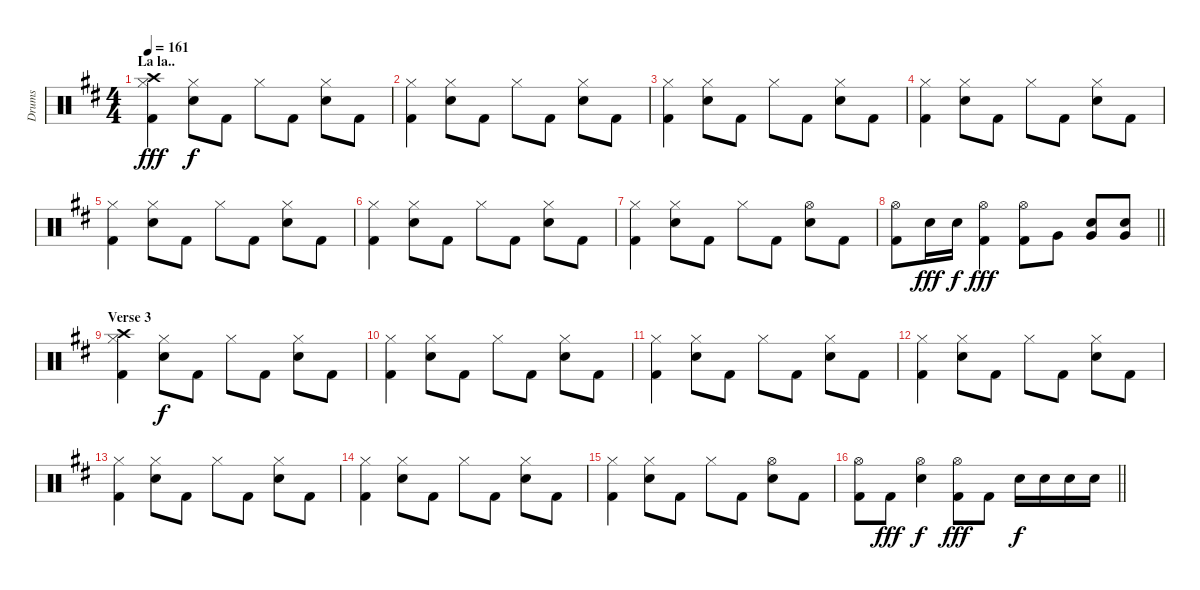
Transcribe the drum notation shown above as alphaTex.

\track ("Drums" "Drums") {instrument percussion}
\staff {score}
\articulation defaults
\ts (4 4)
\section ("" "La la..")
\tempo 161
\clef neutral
\ks d
("Hi-Hat (closed)" "Crash high (hit)" "Kick (hit) 2").4{dy fff} ("Hi-Hat (closed)" "Electric Snare (hit)").8{dy f} "Kick (hit) 2".8 "Hi-Hat (closed)".8 "Kick (hit) 2".8 ("Hi-Hat (closed)" "Electric Snare (hit)").8 "Kick (hit) 2".8 |
("Hi-Hat (closed)" "Kick (hit) 2").4 ("Hi-Hat (closed)" "Electric Snare (hit)").8 "Kick (hit) 2".8 "Hi-Hat (closed)".8 "Kick (hit) 2".8 ("Hi-Hat (closed)" "Electric Snare (hit)").8 "Kick (hit) 2".8 |
("Hi-Hat (closed)" "Kick (hit) 2").4 ("Hi-Hat (closed)" "Electric Snare (hit)").8 "Kick (hit) 2".8 "Hi-Hat (closed)".8 "Kick (hit) 2".8 ("Hi-Hat (closed)" "Electric Snare (hit)").8 "Kick (hit) 2".8 |
("Hi-Hat (closed)" "Kick (hit) 2").4 ("Hi-Hat (closed)" "Electric Snare (hit)").8 "Kick (hit) 2".8 "Hi-Hat (closed)".8 "Kick (hit) 2".8 ("Hi-Hat (closed)" "Electric Snare (hit)").8 "Kick (hit) 2".8 |
("Hi-Hat (closed)" "Kick (hit) 2").4 ("Hi-Hat (closed)" "Electric Snare (hit)").8 "Kick (hit) 2".8 "Hi-Hat (closed)".8 "Kick (hit) 2".8 ("Hi-Hat (closed)" "Electric Snare (hit)").8 "Kick (hit) 2".8 |
("Hi-Hat (closed)" "Kick (hit) 2").4 ("Hi-Hat (closed)" "Electric Snare (hit)").8 "Kick (hit) 2".8 "Hi-Hat (closed)".8 "Kick (hit) 2".8 ("Hi-Hat (closed)" "Electric Snare (hit)").8 "Kick (hit) 2".8 |
("Hi-Hat (closed)" "Kick (hit) 2").4 ("Hi-Hat (closed)" "Electric Snare (hit)").8 "Kick (hit) 2".8 "Hi-Hat (closed)".8 "Kick (hit) 2".8 ("Hi-Hat (open)" "Electric Snare (hit)").8 "Kick (hit) 2".8 |
\barLineRight lightlight
("Hi-Hat (open)" "Kick (hit) 2").8 "Electric Snare (hit)".16{dy fff} "Electric Snare (hit)".16{dy f} ("Hi-Hat (open)" "Kick (hit) 2").4{dy fff} ("Hi-Hat (open)" "Kick (hit) 2").8 "Very Low Tom (hit)".8 ("Electric Snare (hit)" "Very Low Tom (hit)").8 ("Electric Snare (hit)" "Very Low Tom (hit)").8 |
\section ("" "Verse 3")
("Hi-Hat (closed)" "Crash high (hit)" "Kick (hit) 2").4 ("Hi-Hat (closed)" "Electric Snare (hit)").8{dy f} "Kick (hit) 2".8 "Hi-Hat (closed)".8 "Kick (hit) 2".8 ("Hi-Hat (closed)" "Electric Snare (hit)").8 "Kick (hit) 2".8 |
("Hi-Hat (closed)" "Kick (hit) 2").4 ("Hi-Hat (closed)" "Electric Snare (hit)").8 "Kick (hit) 2".8 "Hi-Hat (closed)".8 "Kick (hit) 2".8 ("Hi-Hat (closed)" "Electric Snare (hit)").8 "Kick (hit) 2".8 |
("Hi-Hat (closed)" "Kick (hit) 2").4 ("Hi-Hat (closed)" "Electric Snare (hit)").8 "Kick (hit) 2".8 "Hi-Hat (closed)".8 "Kick (hit) 2".8 ("Hi-Hat (closed)" "Electric Snare (hit)").8 "Kick (hit) 2".8 |
("Hi-Hat (closed)" "Kick (hit) 2").4 ("Hi-Hat (closed)" "Electric Snare (hit)").8 "Kick (hit) 2".8 "Hi-Hat (closed)".8 "Kick (hit) 2".8 ("Hi-Hat (closed)" "Electric Snare (hit)").8 "Kick (hit) 2".8 |
("Hi-Hat (closed)" "Kick (hit) 2").4 ("Hi-Hat (closed)" "Electric Snare (hit)").8 "Kick (hit) 2".8 "Hi-Hat (closed)".8 "Kick (hit) 2".8 ("Hi-Hat (closed)" "Electric Snare (hit)").8 "Kick (hit) 2".8 |
("Hi-Hat (closed)" "Kick (hit) 2").4 ("Hi-Hat (closed)" "Electric Snare (hit)").8 "Kick (hit) 2".8 "Hi-Hat (closed)".8 "Kick (hit) 2".8 ("Hi-Hat (closed)" "Electric Snare (hit)").8 "Kick (hit) 2".8 |
("Hi-Hat (closed)" "Kick (hit) 2").4 ("Hi-Hat (closed)" "Electric Snare (hit)").8 "Kick (hit) 2".8 "Hi-Hat (closed)".8 "Kick (hit) 2".8 ("Hi-Hat (open)" "Electric Snare (hit)").8 "Kick (hit) 2".8 |
\barLineRight lightlight
("Hi-Hat (open)" "Kick (hit) 2").8 "Kick (hit) 2".8{dy fff} ("Hi-Hat (open)" "Electric Snare (hit)").4{dy f} ("Hi-Hat (open)" "Kick (hit) 2").8{dy fff} "Kick (hit) 2".8 "Electric Snare (hit)".16{dy f} "Electric Snare (hit)".16 "Electric Snare (hit)".16 "Electric Snare (hit)".16
